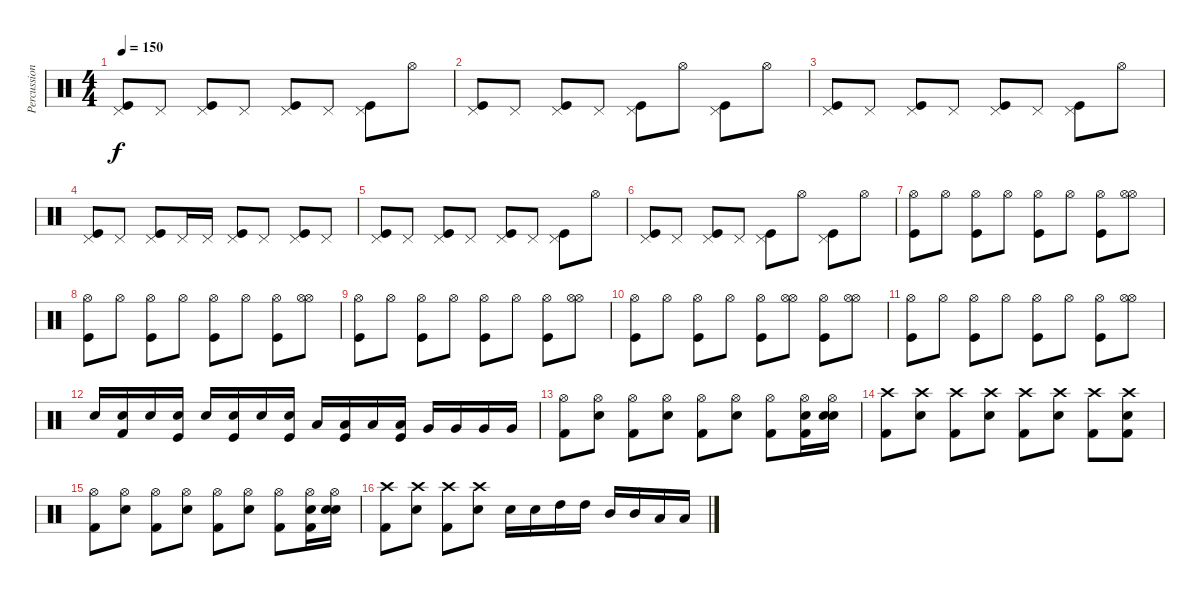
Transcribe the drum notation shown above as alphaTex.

\track ("Percussion" "Percussion") {instrument percussion}
\staff {score}
\articulation defaults
\ts (4 4)
\tempo 150
\clef neutral
\ks c
("Pedal Hi-Hat (hit)" "Kick (hit)").8{dy f} "Pedal Hi-Hat (hit)".8 ("Pedal Hi-Hat (hit)" "Kick (hit)").8 "Pedal Hi-Hat (hit)".8 ("Pedal Hi-Hat (hit)" "Kick (hit)").8 "Pedal Hi-Hat (hit)".8 ("Pedal Hi-Hat (hit)" "Kick (hit)").8 "Hi-Hat (open)".8 |
("Pedal Hi-Hat (hit)" "Kick (hit)").8 "Pedal Hi-Hat (hit)".8 ("Pedal Hi-Hat (hit)" "Kick (hit)").8 "Pedal Hi-Hat (hit)".8 ("Pedal Hi-Hat (hit)" "Kick (hit)").8 "Hi-Hat (open)".8 ("Pedal Hi-Hat (hit)" "Kick (hit)").8 "Hi-Hat (open)".8 |
("Pedal Hi-Hat (hit)" "Kick (hit)").8 "Pedal Hi-Hat (hit)".8 ("Pedal Hi-Hat (hit)" "Kick (hit)").8 "Pedal Hi-Hat (hit)".8 ("Pedal Hi-Hat (hit)" "Kick (hit)").8 "Pedal Hi-Hat (hit)".8 ("Pedal Hi-Hat (hit)" "Kick (hit)").8 "Hi-Hat (open)".8 |
("Pedal Hi-Hat (hit)" "Kick (hit)").8 "Pedal Hi-Hat (hit)".8 ("Pedal Hi-Hat (hit)" "Kick (hit)").8 "Pedal Hi-Hat (hit)".16 "Pedal Hi-Hat (hit)".16 ("Pedal Hi-Hat (hit)" "Kick (hit)").8 "Pedal Hi-Hat (hit)".8 ("Pedal Hi-Hat (hit)" "Kick (hit)").8 "Pedal Hi-Hat (hit)".8 |
("Pedal Hi-Hat (hit)" "Kick (hit)").8 "Pedal Hi-Hat (hit)".8 ("Pedal Hi-Hat (hit)" "Kick (hit)").8 "Pedal Hi-Hat (hit)".8 ("Pedal Hi-Hat (hit)" "Kick (hit)").8 "Pedal Hi-Hat (hit)".8 ("Pedal Hi-Hat (hit)" "Kick (hit)").8 "Hi-Hat (open)".8 |
("Pedal Hi-Hat (hit)" "Kick (hit)").8 "Pedal Hi-Hat (hit)".8 ("Pedal Hi-Hat (hit)" "Kick (hit)").8 "Pedal Hi-Hat (hit)".8 ("Pedal Hi-Hat (hit)" "Kick (hit)").8 "Hi-Hat (open)".8 ("Pedal Hi-Hat (hit)" "Kick (hit)").8 "Hi-Hat (open)".8 |
("Hi-Hat (open)" "Kick (hit)").8 "Hi-Hat (open)".8 ("Hi-Hat (open)" "Kick (hit)").8 "Hi-Hat (open)".8 ("Hi-Hat (open)" "Kick (hit)").8 "Hi-Hat (open)".8 ("Hi-Hat (open)" "Kick (hit)").8 ("Hi-Hat (open)" "Hi-Hat (open)").8 |
("Hi-Hat (open)" "Kick (hit)").8 "Hi-Hat (open)".8 ("Hi-Hat (open)" "Kick (hit)").8 "Hi-Hat (open)".8 ("Hi-Hat (open)" "Kick (hit)").8 "Hi-Hat (open)".8 ("Hi-Hat (open)" "Kick (hit)").8 ("Hi-Hat (open)" "Hi-Hat (open)").8 |
("Hi-Hat (open)" "Kick (hit)").8 "Hi-Hat (open)".8 ("Hi-Hat (open)" "Kick (hit)").8 "Hi-Hat (open)".8 ("Hi-Hat (open)" "Kick (hit)").8 "Hi-Hat (open)".8 ("Hi-Hat (open)" "Kick (hit)").8 ("Hi-Hat (open)" "Hi-Hat (open)").8 |
("Hi-Hat (open)" "Kick (hit)").8 "Hi-Hat (open)".8 ("Hi-Hat (open)" "Kick (hit)").8 "Hi-Hat (open)".8 ("Hi-Hat (open)" "Kick (hit)").8 ("Hi-Hat (open)" "Hi-Hat (open)").8 ("Hi-Hat (open)" "Kick (hit)").8 ("Hi-Hat (open)" "Hi-Hat (open)").8 |
("Hi-Hat (open)" "Kick (hit)").8 "Hi-Hat (open)".8 ("Hi-Hat (open)" "Kick (hit)").8 "Hi-Hat (open)".8 ("Hi-Hat (open)" "Kick (hit)").8 "Hi-Hat (open)".8 ("Hi-Hat (open)" "Kick (hit)").8 ("Hi-Hat (open)" "Hi-Hat (open)").8 |
"Snare (hit) 2".16 ("Snare (hit) 2" "Kick (hit) 2").16 "Snare (hit) 2".16 ("Snare (hit) 2" "Kick (hit)").16 "Snare (hit) 2".16 ("Snare (hit) 2" "Kick (hit)").16 "Snare (hit) 2".16 ("Snare (hit) 2" "Kick (hit)").16 "Low Tom (hit)".16 ("Low Tom (hit)" "Kick (hit)").16 "Low Tom (hit)".16 ("Low Tom (hit)" "Kick (hit)").16 "Very Low Tom (hit)".16 "Very Low Tom (hit)".16 "Very Low Tom (hit)".16 "Very Low Tom (hit)".16 |
("Hi-Hat (open)" "Kick (hit) 2").8 ("Hi-Hat (open)" "Snare (hit) 2").8 ("Hi-Hat (open)" "Kick (hit) 2").8 ("Hi-Hat (open)" "Snare (hit) 2").8 ("Hi-Hat (open)" "Kick (hit) 2").8 ("Hi-Hat (open)" "Snare (hit) 2").8 ("Hi-Hat (open)" "Kick (hit) 2").8 ("Hi-Hat (open)" "Snare (hit) 2" "Kick (hit) 2").16 ("Hi-Hat (open)" "Snare (hit) 2" "Snare (hit) 2").16 |
("Crash high (hit)" "Kick (hit) 2").8 ("Crash high (hit)" "Snare (hit) 2").8 ("Crash high (hit)" "Kick (hit) 2").8 ("Crash high (hit)" "Snare (hit) 2").8 ("Crash high (hit)" "Kick (hit) 2").8 ("Crash high (hit)" "Snare (hit) 2").8 ("Crash high (hit)" "Kick (hit) 2").8 ("Crash high (hit)" "Snare (hit) 2" "Kick (hit) 2").8 |
("Hi-Hat (open)" "Kick (hit) 2").8 ("Hi-Hat (open)" "Snare (hit) 2").8 ("Hi-Hat (open)" "Kick (hit) 2").8 ("Hi-Hat (open)" "Snare (hit) 2").8 ("Hi-Hat (open)" "Kick (hit) 2").8 ("Hi-Hat (open)" "Snare (hit) 2").8 ("Hi-Hat (open)" "Kick (hit) 2").8 ("Hi-Hat (open)" "Snare (hit) 2" "Kick (hit) 2").16 ("Hi-Hat (open)" "Snare (hit) 2" "Snare (hit) 2").16 |
("Crash high (hit)" "Kick (hit) 2").8 ("Crash high (hit)" "Snare (hit) 2").8 ("Crash high (hit)" "Kick (hit) 2").8 ("Crash high (hit)" "Snare (hit) 2").8 "Snare (hit) 2".16 "Snare (hit) 2".16 "High Tom (hit)".16 "High Tom (hit)".16 "Mid Tom (hit)".16 "Mid Tom (hit)".16 "Low Tom (hit)".16 "Low Tom (hit)".16
